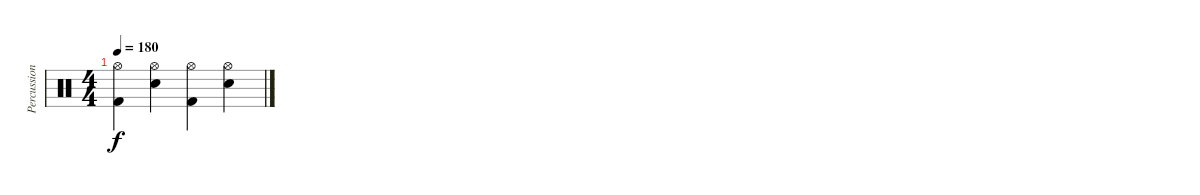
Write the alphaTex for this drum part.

\track ("Percussion" "Percussion") {instrument percussion}
\staff {score}
\articulation defaults
\ts (4 4)
\tempo 180
\clef neutral
\ks c
("Hi-Hat (open)" "Kick (hit) 2").4{dy f} ("Hi-Hat (open)" "Snare (hit) 2").4 ("Hi-Hat (open)" "Kick (hit) 2").4 ("Hi-Hat (open)" "Snare (hit) 2").4
